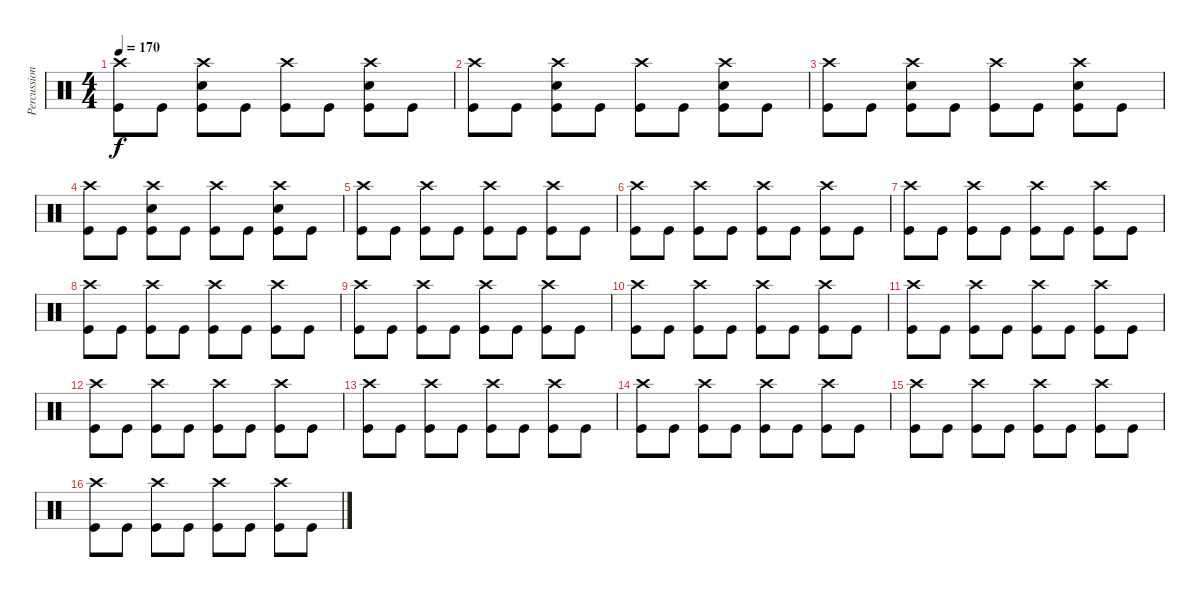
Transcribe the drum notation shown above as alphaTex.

\track ("Percussion" "Percussion") {instrument percussion}
\staff {score}
\articulation defaults
\ts (4 4)
\tempo 170
\clef neutral
\ks c
("Crash high (hit)" "Kick (hit)").8{dy f} "Kick (hit)".8 ("Snare (hit) 2" "Crash high (hit)" "Kick (hit)").8 "Kick (hit)".8 ("Crash high (hit)" "Kick (hit)").8 "Kick (hit)".8 ("Snare (hit) 2" "Crash high (hit)" "Kick (hit)").8 "Kick (hit)".8 |
("Crash high (hit)" "Kick (hit)").8 "Kick (hit)".8 ("Snare (hit) 2" "Crash high (hit)" "Kick (hit)").8 "Kick (hit)".8 ("Crash high (hit)" "Kick (hit)").8 "Kick (hit)".8 ("Snare (hit) 2" "Crash high (hit)" "Kick (hit)").8 "Kick (hit)".8 |
("Crash high (hit)" "Kick (hit)").8 "Kick (hit)".8 ("Snare (hit) 2" "Crash high (hit)" "Kick (hit)").8 "Kick (hit)".8 ("Crash high (hit)" "Kick (hit)").8 "Kick (hit)".8 ("Snare (hit) 2" "Crash high (hit)" "Kick (hit)").8 "Kick (hit)".8 |
("Crash high (hit)" "Kick (hit)").8 "Kick (hit)".8 ("Snare (hit) 2" "Crash high (hit)" "Kick (hit)").8 "Kick (hit)".8 ("Crash high (hit)" "Kick (hit)").8 "Kick (hit)".8 ("Snare (hit) 2" "Crash high (hit)" "Kick (hit)").8 "Kick (hit)".8 |
("Crash high (hit)" "Kick (hit)").8 "Kick (hit)".8 ("Crash high (hit)" "Kick (hit)").8 "Kick (hit)".8 ("Crash high (hit)" "Kick (hit)").8 "Kick (hit)".8 ("Crash high (hit)" "Kick (hit)").8 "Kick (hit)".8 |
("Crash high (hit)" "Kick (hit)").8 "Kick (hit)".8 ("Crash high (hit)" "Kick (hit)").8 "Kick (hit)".8 ("Crash high (hit)" "Kick (hit)").8 "Kick (hit)".8 ("Crash high (hit)" "Kick (hit)").8 "Kick (hit)".8 |
("Crash high (hit)" "Kick (hit)").8 "Kick (hit)".8 ("Crash high (hit)" "Kick (hit)").8 "Kick (hit)".8 ("Crash high (hit)" "Kick (hit)").8 "Kick (hit)".8 ("Crash high (hit)" "Kick (hit)").8 "Kick (hit)".8 |
("Crash high (hit)" "Kick (hit)").8 "Kick (hit)".8 ("Crash high (hit)" "Kick (hit)").8 "Kick (hit)".8 ("Crash high (hit)" "Kick (hit)").8 "Kick (hit)".8 ("Crash high (hit)" "Kick (hit)").8 "Kick (hit)".8 |
("Crash high (hit)" "Kick (hit)").8 "Kick (hit)".8 ("Crash high (hit)" "Kick (hit)").8 "Kick (hit)".8 ("Crash high (hit)" "Kick (hit)").8 "Kick (hit)".8 ("Crash high (hit)" "Kick (hit)").8 "Kick (hit)".8 |
("Crash high (hit)" "Kick (hit)").8 "Kick (hit)".8 ("Crash high (hit)" "Kick (hit)").8 "Kick (hit)".8 ("Crash high (hit)" "Kick (hit)").8 "Kick (hit)".8 ("Crash high (hit)" "Kick (hit)").8 "Kick (hit)".8 |
("Crash high (hit)" "Kick (hit)").8 "Kick (hit)".8 ("Crash high (hit)" "Kick (hit)").8 "Kick (hit)".8 ("Crash high (hit)" "Kick (hit)").8 "Kick (hit)".8 ("Crash high (hit)" "Kick (hit)").8 "Kick (hit)".8 |
("Crash high (hit)" "Kick (hit)").8 "Kick (hit)".8 ("Crash high (hit)" "Kick (hit)").8 "Kick (hit)".8 ("Crash high (hit)" "Kick (hit)").8 "Kick (hit)".8 ("Crash high (hit)" "Kick (hit)").8 "Kick (hit)".8 |
("Crash high (hit)" "Kick (hit)").8 "Kick (hit)".8 ("Crash high (hit)" "Kick (hit)").8 "Kick (hit)".8 ("Crash high (hit)" "Kick (hit)").8 "Kick (hit)".8 ("Crash high (hit)" "Kick (hit)").8 "Kick (hit)".8 |
("Crash high (hit)" "Kick (hit)").8 "Kick (hit)".8 ("Crash high (hit)" "Kick (hit)").8 "Kick (hit)".8 ("Crash high (hit)" "Kick (hit)").8 "Kick (hit)".8 ("Crash high (hit)" "Kick (hit)").8 "Kick (hit)".8 |
("Crash high (hit)" "Kick (hit)").8 "Kick (hit)".8 ("Crash high (hit)" "Kick (hit)").8 "Kick (hit)".8 ("Crash high (hit)" "Kick (hit)").8 "Kick (hit)".8 ("Crash high (hit)" "Kick (hit)").8 "Kick (hit)".8 |
("Crash high (hit)" "Kick (hit)").8 "Kick (hit)".8 ("Crash high (hit)" "Kick (hit)").8 "Kick (hit)".8 ("Crash high (hit)" "Kick (hit)").8 "Kick (hit)".8 ("Crash high (hit)" "Kick (hit)").8 "Kick (hit)".8
